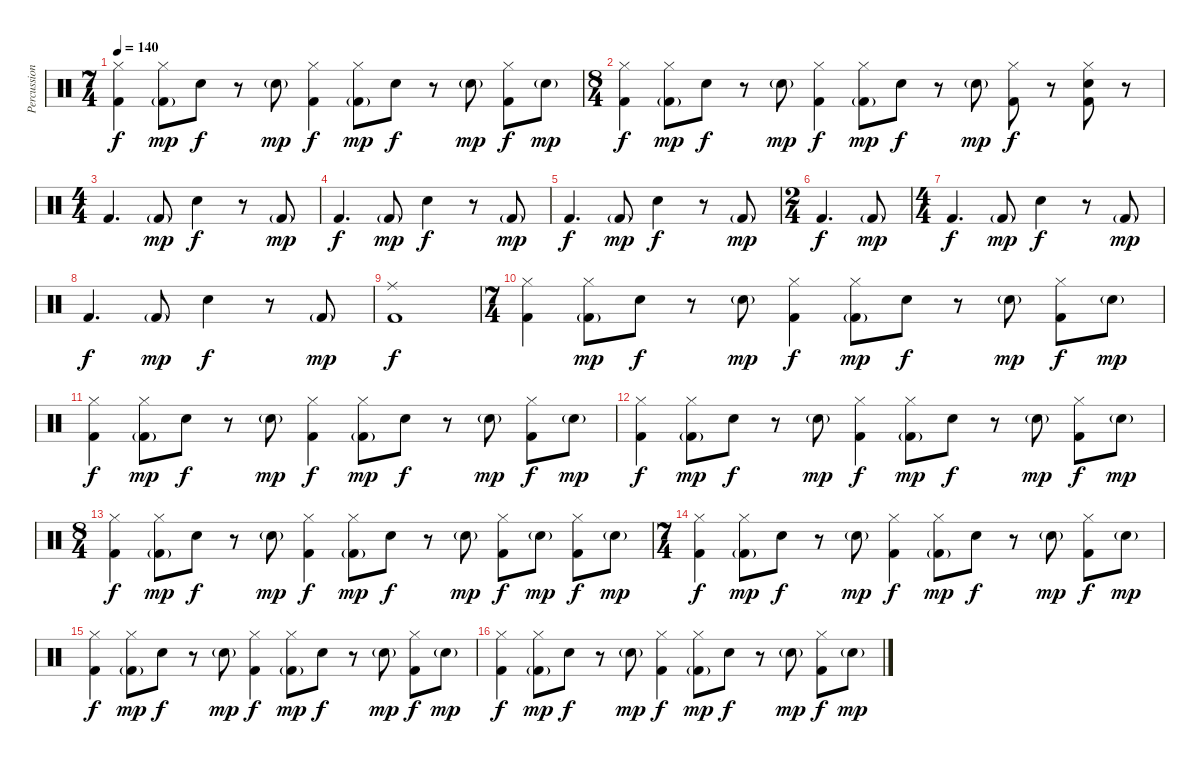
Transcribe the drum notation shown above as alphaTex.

\track ("Percussion" "Percussion") {instrument percussion}
\staff {score}
\articulation defaults
\ts (7 4)
\tempo 140
\clef neutral
\ks c
("Hi-Hat (closed)" "Kick (hit) 2").4{dy f} ("Hi-Hat (closed)" "Kick (hit) 2"{g}).8{dy mp} "Snare (hit) 2".8{dy f} r.8 "Snare (hit) 2"{g}.8{dy mp} ("Hi-Hat (closed)" "Kick (hit) 2").4{dy f} ("Hi-Hat (closed)" "Kick (hit) 2"{g}).8{dy mp} "Snare (hit) 2".8{dy f} r.8 "Snare (hit) 2"{g}.8{dy mp} ("Hi-Hat (closed)" "Kick (hit) 2").8{dy f} "Snare (hit) 2"{g}.8{dy mp} |
\ts (8 4)
("Hi-Hat (closed)" "Kick (hit) 2").4{dy f} ("Hi-Hat (closed)" "Kick (hit) 2"{g}).8{dy mp} "Snare (hit) 2".8{dy f} r.8 "Snare (hit) 2"{g}.8{dy mp} ("Hi-Hat (closed)" "Kick (hit) 2").4{dy f} ("Hi-Hat (closed)" "Kick (hit) 2"{g}).8{dy mp} "Snare (hit) 2".8{dy f} r.8 "Snare (hit) 2"{g}.8{dy mp} ("Hi-Hat (closed)" "Kick (hit) 2").8{dy f} r.8 ("Hi-Hat (closed)" "Snare (hit) 2" "Kick (hit) 2").8 r.8 |
\ts (4 4)
"Kick (hit) 2".4{d} "Kick (hit) 2"{g}.8{dy mp} "Snare (hit) 2".4{dy f} r.8 "Kick (hit) 2"{g}.8{dy mp} |
"Kick (hit) 2".4{d dy f} "Kick (hit) 2"{g}.8{dy mp} "Snare (hit) 2".4{dy f} r.8 "Kick (hit) 2"{g}.8{dy mp} |
"Kick (hit) 2".4{d dy f} "Kick (hit) 2"{g}.8{dy mp} "Snare (hit) 2".4{dy f} r.8 "Kick (hit) 2"{g}.8{dy mp} |
\ts (2 4)
"Kick (hit) 2".4{d dy f} "Kick (hit) 2"{g}.8{dy mp} |
\ts (4 4)
"Kick (hit) 2".4{d dy f} "Kick (hit) 2"{g}.8{dy mp} "Snare (hit) 2".4{dy f} r.8 "Kick (hit) 2"{g}.8{dy mp} |
"Kick (hit) 2".4{d dy f} "Kick (hit) 2"{g}.8{dy mp} "Snare (hit) 2".4{dy f} r.8 "Kick (hit) 2"{g}.8{dy mp} |
("Ride (middle)" "Kick (hit) 2").1{dy f} |
\ts (7 4)
("Hi-Hat (closed)" "Kick (hit) 2").4 ("Hi-Hat (closed)" "Kick (hit) 2"{g}).8{dy mp} "Snare (hit) 2".8{dy f} r.8 "Snare (hit) 2"{g}.8{dy mp} ("Hi-Hat (closed)" "Kick (hit) 2").4{dy f} ("Hi-Hat (closed)" "Kick (hit) 2"{g}).8{dy mp} "Snare (hit) 2".8{dy f} r.8 "Snare (hit) 2"{g}.8{dy mp} ("Hi-Hat (closed)" "Kick (hit) 2").8{dy f} "Snare (hit) 2"{g}.8{dy mp} |
("Hi-Hat (closed)" "Kick (hit) 2").4{dy f} ("Hi-Hat (closed)" "Kick (hit) 2"{g}).8{dy mp} "Snare (hit) 2".8{dy f} r.8 "Snare (hit) 2"{g}.8{dy mp} ("Hi-Hat (closed)" "Kick (hit) 2").4{dy f} ("Hi-Hat (closed)" "Kick (hit) 2"{g}).8{dy mp} "Snare (hit) 2".8{dy f} r.8 "Snare (hit) 2"{g}.8{dy mp} ("Hi-Hat (closed)" "Kick (hit) 2").8{dy f} "Snare (hit) 2"{g}.8{dy mp} |
("Hi-Hat (closed)" "Kick (hit) 2").4{dy f} ("Hi-Hat (closed)" "Kick (hit) 2"{g}).8{dy mp} "Snare (hit) 2".8{dy f} r.8 "Snare (hit) 2"{g}.8{dy mp} ("Hi-Hat (closed)" "Kick (hit) 2").4{dy f} ("Hi-Hat (closed)" "Kick (hit) 2"{g}).8{dy mp} "Snare (hit) 2".8{dy f} r.8 "Snare (hit) 2"{g}.8{dy mp} ("Hi-Hat (closed)" "Kick (hit) 2").8{dy f} "Snare (hit) 2"{g}.8{dy mp} |
\ts (8 4)
("Hi-Hat (closed)" "Kick (hit) 2").4{dy f} ("Hi-Hat (closed)" "Kick (hit) 2"{g}).8{dy mp} "Snare (hit) 2".8{dy f} r.8 "Snare (hit) 2"{g}.8{dy mp} ("Hi-Hat (closed)" "Kick (hit) 2").4{dy f} ("Hi-Hat (closed)" "Kick (hit) 2"{g}).8{dy mp} "Snare (hit) 2".8{dy f} r.8 "Snare (hit) 2"{g}.8{dy mp} ("Hi-Hat (closed)" "Kick (hit) 2").8{dy f} "Snare (hit) 2"{g}.8{dy mp} ("Hi-Hat (closed)" "Kick (hit) 2").8{dy f} "Snare (hit) 2"{g}.8{dy mp} |
\ts (7 4)
("Hi-Hat (closed)" "Kick (hit) 2").4{dy f} ("Hi-Hat (closed)" "Kick (hit) 2"{g}).8{dy mp} "Snare (hit) 2".8{dy f} r.8 "Snare (hit) 2"{g}.8{dy mp} ("Hi-Hat (closed)" "Kick (hit) 2").4{dy f} ("Hi-Hat (closed)" "Kick (hit) 2"{g}).8{dy mp} "Snare (hit) 2".8{dy f} r.8 "Snare (hit) 2"{g}.8{dy mp} ("Hi-Hat (closed)" "Kick (hit) 2").8{dy f} "Snare (hit) 2"{g}.8{dy mp} |
("Hi-Hat (closed)" "Kick (hit) 2").4{dy f} ("Hi-Hat (closed)" "Kick (hit) 2"{g}).8{dy mp} "Snare (hit) 2".8{dy f} r.8 "Snare (hit) 2"{g}.8{dy mp} ("Hi-Hat (closed)" "Kick (hit) 2").4{dy f} ("Hi-Hat (closed)" "Kick (hit) 2"{g}).8{dy mp} "Snare (hit) 2".8{dy f} r.8 "Snare (hit) 2"{g}.8{dy mp} ("Hi-Hat (closed)" "Kick (hit) 2").8{dy f} "Snare (hit) 2"{g}.8{dy mp} |
("Hi-Hat (closed)" "Kick (hit) 2").4{dy f} ("Hi-Hat (closed)" "Kick (hit) 2"{g}).8{dy mp} "Snare (hit) 2".8{dy f} r.8 "Snare (hit) 2"{g}.8{dy mp} ("Hi-Hat (closed)" "Kick (hit) 2").4{dy f} ("Hi-Hat (closed)" "Kick (hit) 2"{g}).8{dy mp} "Snare (hit) 2".8{dy f} r.8 "Snare (hit) 2"{g}.8{dy mp} ("Hi-Hat (closed)" "Kick (hit) 2").8{dy f} "Snare (hit) 2"{g}.8{dy mp}
